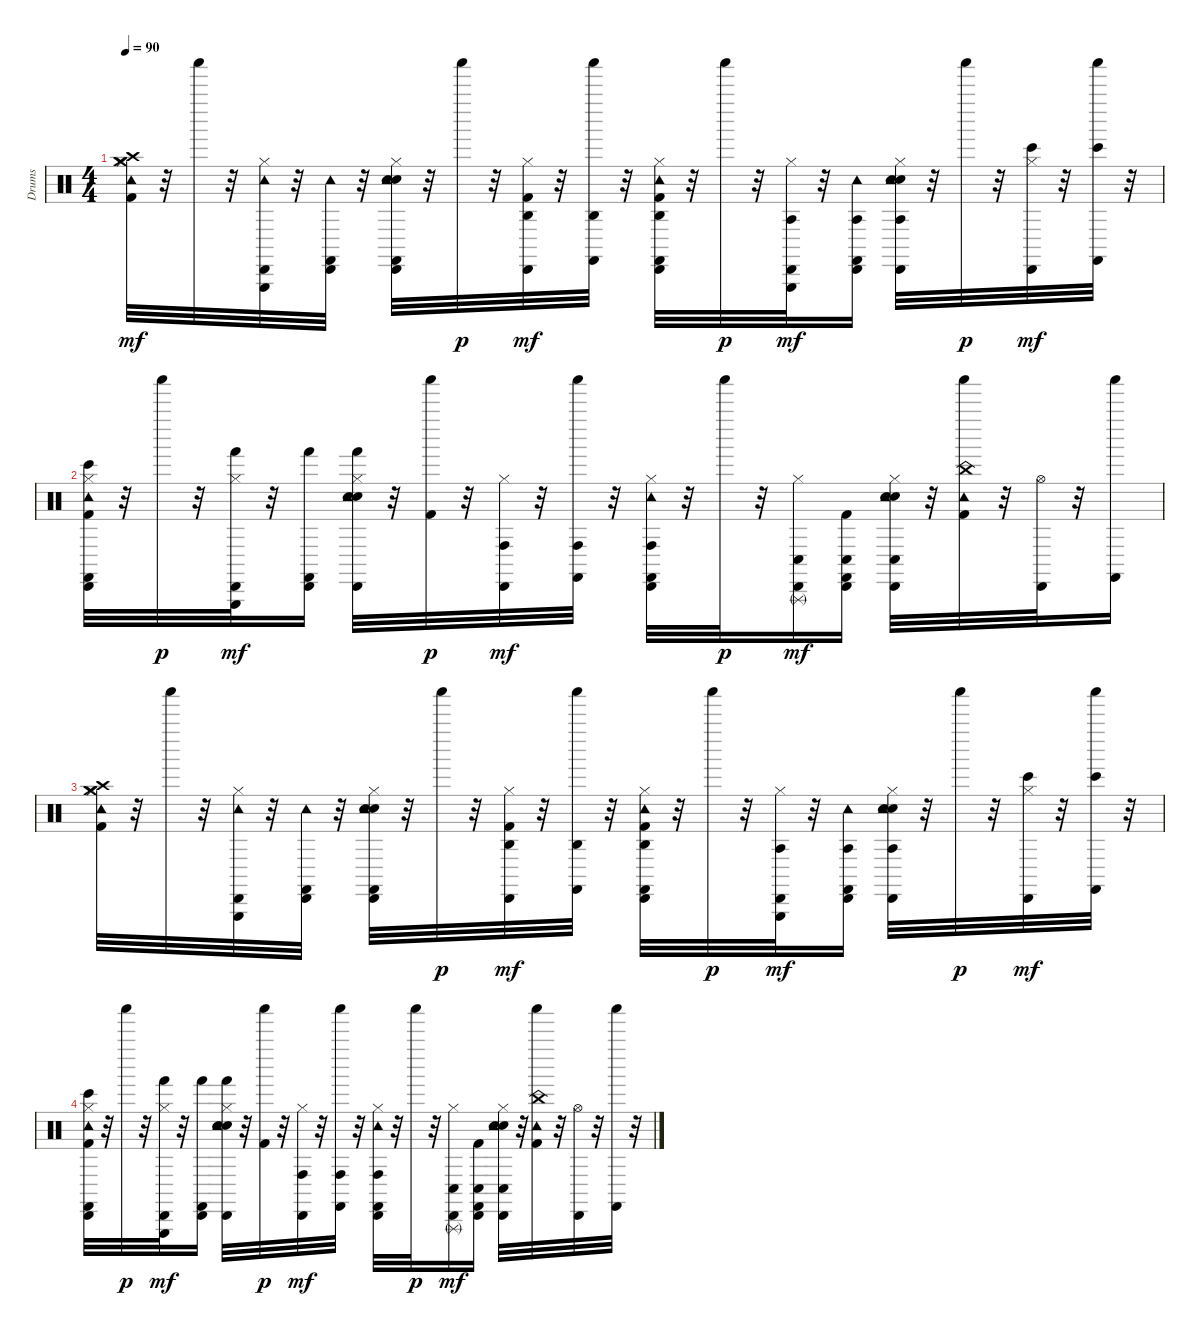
\track ("Drums" "Drums") {instrument percussion}
\staff {score}
\articulation defaults
\ts (4 4)
\tempo 90
\clef neutral
\ks c
("Hi-Hat (closed)" "Kick (hit) 2" "Tambourine (hit)" "Crash high (hit)" "Crash medium (hit)" "Hi-Hat (closed)").32{dy mf} r.32 "Shaker (hit)".32 r.32 ("Hi-Hat (closed)" "Tambourine (hit)" "Cabasa (hit)" "Triangle (hit)").32 r.32 ("Tambourine (hit)" "Cabasa (hit)" "Castanets (hit)").32 r.32 ("Electric Snare (hit)" "Hi-Hat (closed)" "Snare (hit) 2" "Tambourine (hit)" "Cabasa (hit)" "Castanets (hit)").32 r.32 "Shaker (hit)".32{dy p} r.32 ("Hi-Hat (closed)" "Kick (hit) 2" "Agogo high (hit)" "Cabasa (hit)").32{dy mf} r.32 ("Agogo high (hit)" "Shaker (hit)" "Castanets (hit)").32 r.32 ("Hi-Hat (closed)" "Kick (hit) 2" "Agogo high (hit)" "Cabasa (hit)" "Tambourine (hit)" "Castanets (hit)").32 r.32 "Shaker (hit)".32{dy p} r.32 ("Hi-Hat (closed)" "Agogo tow (hit)" "Cabasa (hit)" "Triangle (hit)").32{dy mf} r.32 ("Agogo tow (hit)" "Cabasa (hit)" "Tambourine (hit)" "Castanets (hit)").16 ("Electric Snare (hit)" "Hi-Hat (closed)" "Snare (hit) 2" "Agogo tow (hit)" "Tambourine (hit)" "Cabasa (hit)").32 r.32 "Shaker (hit)".32{dy p} r.32 ("Hi-Hat (closed)" "Bongo High (hit)" "Cabasa (hit)").32{dy mf} r.32 ("Bongo High (hit)" "Shaker (hit)" "Castanets (hit)").32 r.32 |
("Hi-Hat (closed)" "Kick (hit) 2" "Bongo High (hit)" "Cabasa (hit)" "Tambourine (hit)" "Castanets (hit)").32 r.32 "Shaker (hit)".32{dy p} r.32 ("Hi-Hat (closed)" "Hand (hit)" "Cabasa (hit)" "Triangle (hit)").32{dy mf} r.32 ("Hand (hit)" "Cabasa (hit)" "Castanets (hit)").16 ("Electric Snare (hit)" "Hi-Hat (closed)" "Snare (hit) 2" "Hand (hit)" "Cabasa (hit)" "Tambourine (hit)").32 r.32 ("Kick (hit) 2" "Shaker (hit)").32{dy p} r.32 ("Hi-Hat (closed)" "Conga high (hit)" "Cabasa (hit)").32{dy mf} r.32 ("Conga high (hit)" "Shaker (hit)" "Castanets (hit)").32 r.32 ("Hi-Hat (closed)" "Conga high (hit)" "Cabasa (hit)" "Tambourine (hit)" "Castanets (hit)").32 r.32 "Shaker (hit)".32{dy p} r.32 ("Hi-Hat (closed)" "Conga low (hit)" "Cabasa (hit)" "Triangle (rnute)").16{dy mf} ("Kick (hit) 2" "Conga low (hit)" "Cabasa (hit)" "Castanets (hit)").16 ("Electric Snare (hit)" "Hi-Hat (closed)" "Snare (hit) 2" "Conga low (hit)" "Cabasa (hit)" "Tambourine (hit)").32 r.32 ("Kick (hit) 2" "Tambourine (hit)" "Shaker (hit)" "China (hit)").32 r.32 ("Hi-Hat (open)" "Cabasa (hit)").32 r.32 ("Shaker (hit)" "Castanets (hit)").16 |
("Hi-Hat (closed)" "Kick (hit) 2" "Tambourine (hit)" "Crash high (hit)" "Crash medium (hit)" "Hi-Hat (closed)").32 r.32 "Shaker (hit)".32 r.32 ("Hi-Hat (closed)" "Tambourine (hit)" "Cabasa (hit)" "Triangle (hit)").32 r.32 ("Tambourine (hit)" "Cabasa (hit)" "Castanets (hit)").32 r.32 ("Electric Snare (hit)" "Hi-Hat (closed)" "Snare (hit) 2" "Tambourine (hit)" "Cabasa (hit)" "Castanets (hit)").32 r.32 "Shaker (hit)".32{dy p} r.32 ("Hi-Hat (closed)" "Kick (hit) 2" "Agogo high (hit)" "Cabasa (hit)").32{dy mf} r.32 ("Agogo high (hit)" "Shaker (hit)" "Castanets (hit)").32 r.32 ("Hi-Hat (closed)" "Kick (hit) 2" "Agogo high (hit)" "Cabasa (hit)" "Tambourine (hit)" "Castanets (hit)").32 r.32 "Shaker (hit)".32{dy p} r.32 ("Hi-Hat (closed)" "Agogo tow (hit)" "Cabasa (hit)" "Triangle (hit)").32{dy mf} r.32 ("Agogo tow (hit)" "Cabasa (hit)" "Tambourine (hit)" "Castanets (hit)").16 ("Electric Snare (hit)" "Hi-Hat (closed)" "Snare (hit) 2" "Agogo tow (hit)" "Tambourine (hit)" "Cabasa (hit)").32 r.32 "Shaker (hit)".32{dy p} r.32 ("Hi-Hat (closed)" "Bongo High (hit)" "Cabasa (hit)").32{dy mf} r.32 ("Bongo High (hit)" "Shaker (hit)" "Castanets (hit)").32 r.32 |
("Hi-Hat (closed)" "Kick (hit) 2" "Bongo High (hit)" "Cabasa (hit)" "Tambourine (hit)" "Castanets (hit)").32 r.32 "Shaker (hit)".32{dy p} r.32 ("Hi-Hat (closed)" "Hand (hit)" "Cabasa (hit)" "Triangle (hit)").32{dy mf} r.32 ("Hand (hit)" "Cabasa (hit)" "Castanets (hit)").16 ("Electric Snare (hit)" "Hi-Hat (closed)" "Snare (hit) 2" "Hand (hit)" "Cabasa (hit)" "Tambourine (hit)").32 r.32 ("Kick (hit) 2" "Shaker (hit)").32{dy p} r.32 ("Hi-Hat (closed)" "Conga high (hit)" "Cabasa (hit)").32{dy mf} r.32 ("Conga high (hit)" "Shaker (hit)" "Castanets (hit)").32 r.32 ("Hi-Hat (closed)" "Conga high (hit)" "Cabasa (hit)" "Tambourine (hit)" "Castanets (hit)").32 r.32 "Shaker (hit)".32{dy p} r.32 ("Hi-Hat (closed)" "Conga low (hit)" "Cabasa (hit)" "Triangle (rnute)").16{dy mf} ("Kick (hit) 2" "Conga low (hit)" "Cabasa (hit)" "Castanets (hit)").16 ("Electric Snare (hit)" "Hi-Hat (closed)" "Snare (hit) 2" "Conga low (hit)" "Cabasa (hit)" "Tambourine (hit)").32 r.32 ("Kick (hit) 2" "Tambourine (hit)" "Shaker (hit)" "China (hit)").32 r.32 ("Hi-Hat (open)" "Cabasa (hit)").32 r.32 ("Shaker (hit)" "Castanets (hit)").32 r.32
